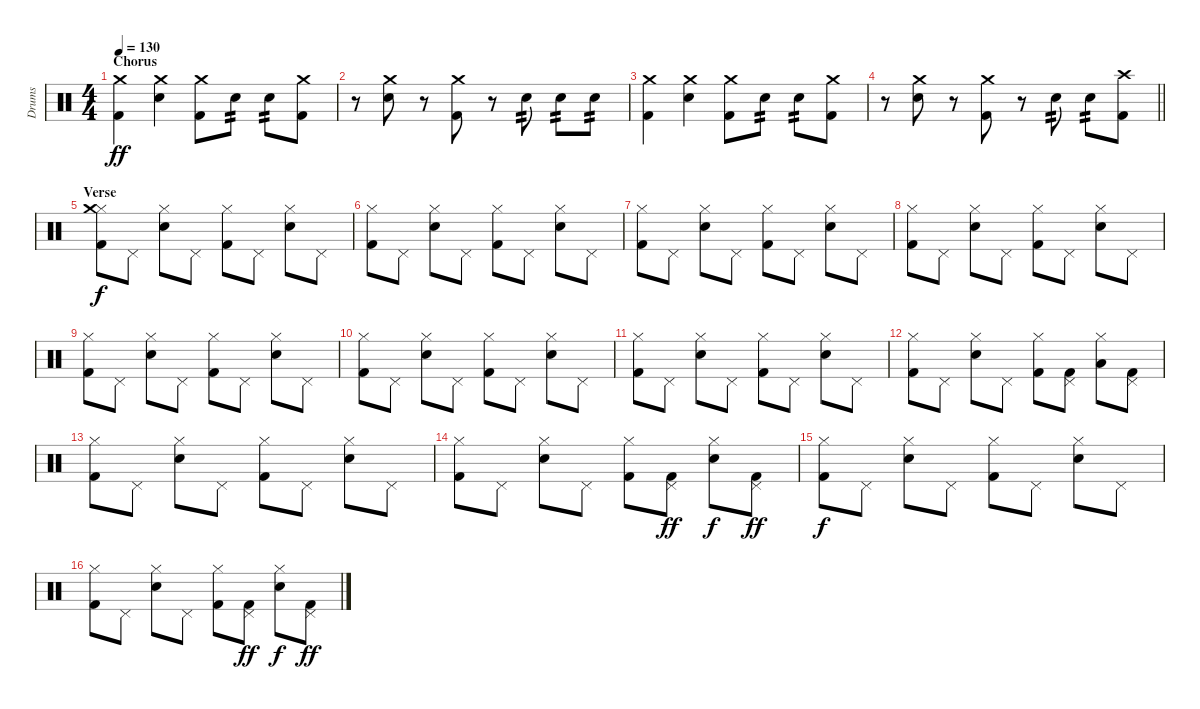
\track ("Drums" "Drums") {instrument percussion}
\staff {score}
\articulation defaults
\ts (4 4)
\section ("" "Chorus")
\tempo 130
\clef neutral
\ks c
("Kick (hit) 2" "Crash medium (hit)").4{dy ff} ("Electric Snare (hit)" "Crash medium (hit)").4 ("Kick (hit) 2" "Crash medium (hit)").8 "Electric Snare (hit)".8{tp 2} "Electric Snare (hit)".8{tp 2} ("Kick (hit) 2" "Crash medium (hit)").8 |
r.8 ("Electric Snare (hit)" "Crash medium (hit)").8 r.8 ("Kick (hit) 2" "Crash medium (hit)").8 r.8 "Electric Snare (hit)".8{tp 2} "Electric Snare (hit)".8{tp 2} "Electric Snare (hit)".8{tp 2} |
("Kick (hit) 2" "Crash medium (hit)").4 ("Electric Snare (hit)" "Crash medium (hit)").4 ("Kick (hit) 2" "Crash medium (hit)").8 "Electric Snare (hit)".8{tp 2} "Electric Snare (hit)".8{tp 2} ("Kick (hit) 2" "Crash medium (hit)").8 |
\barLineRight lightlight
r.8 ("Electric Snare (hit)" "Crash medium (hit)").8 r.8 ("Kick (hit) 2" "Crash medium (hit)").8 r.8 "Electric Snare (hit)".8{tp 2} "Electric Snare (hit)".8{tp 2} ("Kick (hit) 2" "Crash high (hit)").8 |
\section ("" "Verse")
("Kick (hit) 2" "Hi-Hat (closed)" "Crash medium (hit)").8{dy f} "Pedal Hi-Hat (hit)".8 ("Electric Snare (hit)" "Hi-Hat (closed)").8 "Pedal Hi-Hat (hit)".8 ("Kick (hit) 2" "Hi-Hat (closed)").8 "Pedal Hi-Hat (hit)".8 ("Electric Snare (hit)" "Hi-Hat (closed)").8 "Pedal Hi-Hat (hit)".8 |
("Kick (hit) 2" "Hi-Hat (closed)").8 "Pedal Hi-Hat (hit)".8 ("Electric Snare (hit)" "Hi-Hat (closed)").8 "Pedal Hi-Hat (hit)".8 ("Kick (hit) 2" "Hi-Hat (closed)").8 "Pedal Hi-Hat (hit)".8 ("Electric Snare (hit)" "Hi-Hat (closed)").8 "Pedal Hi-Hat (hit)".8 |
("Kick (hit) 2" "Hi-Hat (closed)").8 "Pedal Hi-Hat (hit)".8 ("Electric Snare (hit)" "Hi-Hat (closed)").8 "Pedal Hi-Hat (hit)".8 ("Kick (hit) 2" "Hi-Hat (closed)").8 "Pedal Hi-Hat (hit)".8 ("Electric Snare (hit)" "Hi-Hat (closed)").8 "Pedal Hi-Hat (hit)".8 |
("Kick (hit) 2" "Hi-Hat (closed)").8 "Pedal Hi-Hat (hit)".8 ("Electric Snare (hit)" "Hi-Hat (closed)").8 "Pedal Hi-Hat (hit)".8 ("Kick (hit) 2" "Hi-Hat (closed)").8 "Pedal Hi-Hat (hit)".8 ("Electric Snare (hit)" "Hi-Hat (closed)").8 "Pedal Hi-Hat (hit)".8 |
("Kick (hit) 2" "Hi-Hat (closed)").8 "Pedal Hi-Hat (hit)".8 ("Electric Snare (hit)" "Hi-Hat (closed)").8 "Pedal Hi-Hat (hit)".8 ("Kick (hit) 2" "Hi-Hat (closed)").8 "Pedal Hi-Hat (hit)".8 ("Electric Snare (hit)" "Hi-Hat (closed)").8 "Pedal Hi-Hat (hit)".8 |
("Kick (hit) 2" "Hi-Hat (closed)").8 "Pedal Hi-Hat (hit)".8 ("Electric Snare (hit)" "Hi-Hat (closed)").8 "Pedal Hi-Hat (hit)".8 ("Kick (hit) 2" "Hi-Hat (closed)").8 "Pedal Hi-Hat (hit)".8 ("Electric Snare (hit)" "Hi-Hat (closed)").8 "Pedal Hi-Hat (hit)".8 |
("Kick (hit) 2" "Hi-Hat (closed)").8 "Pedal Hi-Hat (hit)".8 ("Electric Snare (hit)" "Hi-Hat (closed)").8 "Pedal Hi-Hat (hit)".8 ("Kick (hit) 2" "Hi-Hat (closed)").8 "Pedal Hi-Hat (hit)".8 ("Electric Snare (hit)" "Hi-Hat (closed)").8 "Pedal Hi-Hat (hit)".8 |
("Kick (hit) 2" "Hi-Hat (closed)").8 "Pedal Hi-Hat (hit)".8 ("Electric Snare (hit)" "Hi-Hat (closed)").8 "Pedal Hi-Hat (hit)".8 ("Kick (hit) 2" "Hi-Hat (closed)").8 ("Kick (hit) 2" "Pedal Hi-Hat (hit)").8 ("Low Floor Tom (hit)" "Hi-Hat (closed)").8 ("Kick (hit) 2" "Pedal Hi-Hat (hit)").8 |
("Kick (hit) 2" "Hi-Hat (closed)").8 "Pedal Hi-Hat (hit)".8 ("Electric Snare (hit)" "Hi-Hat (closed)").8 "Pedal Hi-Hat (hit)".8 ("Kick (hit) 2" "Hi-Hat (closed)").8 "Pedal Hi-Hat (hit)".8 ("Electric Snare (hit)" "Hi-Hat (closed)").8 "Pedal Hi-Hat (hit)".8 |
("Kick (hit) 2" "Hi-Hat (closed)").8 "Pedal Hi-Hat (hit)".8 ("Electric Snare (hit)" "Hi-Hat (closed)").8 "Pedal Hi-Hat (hit)".8 ("Kick (hit) 2" "Hi-Hat (closed)").8 ("Kick (hit) 2" "Pedal Hi-Hat (hit)").8{dy ff} ("Electric Snare (hit)" "Hi-Hat (closed)").8{dy f} ("Kick (hit) 2" "Pedal Hi-Hat (hit)").8{dy ff} |
("Kick (hit) 2" "Hi-Hat (closed)").8{dy f} "Pedal Hi-Hat (hit)".8 ("Electric Snare (hit)" "Hi-Hat (closed)").8 "Pedal Hi-Hat (hit)".8 ("Kick (hit) 2" "Hi-Hat (closed)").8 "Pedal Hi-Hat (hit)".8 ("Electric Snare (hit)" "Hi-Hat (closed)").8 "Pedal Hi-Hat (hit)".8 |
("Kick (hit) 2" "Hi-Hat (closed)").8 "Pedal Hi-Hat (hit)".8 ("Electric Snare (hit)" "Hi-Hat (closed)").8 "Pedal Hi-Hat (hit)".8 ("Kick (hit) 2" "Hi-Hat (closed)").8 ("Kick (hit) 2" "Pedal Hi-Hat (hit)").8{dy ff} ("Electric Snare (hit)" "Hi-Hat (closed)").8{dy f} ("Kick (hit) 2" "Pedal Hi-Hat (hit)").8{dy ff}
